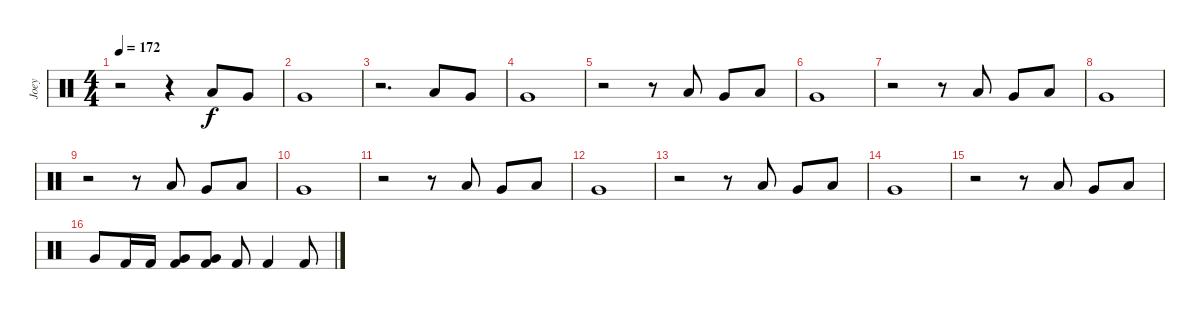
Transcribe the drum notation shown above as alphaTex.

\track ("Joey" "Joey") {instrument percussion}
\staff {score}
\articulation defaults
\ts (4 4)
\tempo 172
\clef neutral
\ks c
r.2{dy fff} r.4 "Low Tom (hit)".8{dy f} "Very Low Tom (hit)".8 |
"Very Low Tom (hit)".1 |
r.2{d} "Low Tom (hit)".8 "Very Low Tom (hit)".8 |
"Very Low Tom (hit)".1 |
r.2 r.8 "Low Tom (hit)".8 "Very Low Tom (hit)".8 "Low Tom (hit)".8 |
"Very Low Tom (hit)".1 |
r.2 r.8 "Low Tom (hit)".8 "Very Low Tom (hit)".8 "Low Tom (hit)".8 |
"Very Low Tom (hit)".1 |
r.2 r.8 "Low Tom (hit)".8 "Very Low Tom (hit)".8 "Low Tom (hit)".8 |
"Very Low Tom (hit)".1 |
r.2 r.8 "Low Tom (hit)".8 "Very Low Tom (hit)".8 "Low Tom (hit)".8 |
"Very Low Tom (hit)".1 |
r.2 r.8 "Low Tom (hit)".8 "Very Low Tom (hit)".8 "Low Tom (hit)".8 |
"Very Low Tom (hit)".1 |
r.2 r.8 "Low Tom (hit)".8 "Very Low Tom (hit)".8 "Low Tom (hit)".8 |
"Very Low Tom (hit)".8 "Kick (hit) 2".16 "Kick (hit) 2".16 ("Very Low Tom (hit)" "Kick (hit) 2").8 ("Very Low Tom (hit)" "Kick (hit) 2").8 "Kick (hit) 2".8 "Kick (hit) 2".4 "Kick (hit) 2".8
